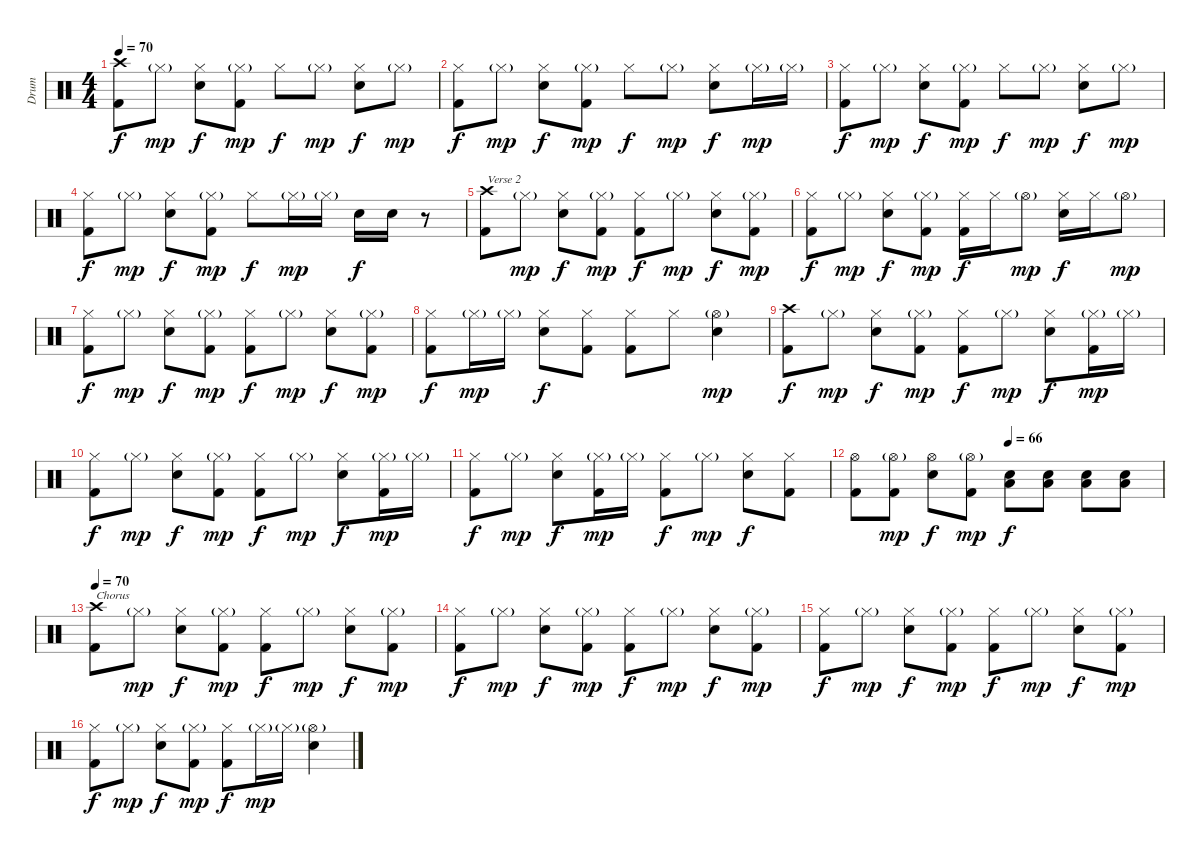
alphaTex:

\track ("Drum" "Drum") {instrument percussion}
\staff {score}
\articulation defaults
\ts (4 4)
\tempo 70
\clef neutral
\ks c
("Crash high (hit)" "Kick (hit) 2").8{dy f} "Hi-Hat (closed)"{g}.8{dy mp} ("Hi-Hat (closed)" "Snare (hit) 2").8{dy f} ("Hi-Hat (closed)"{g} "Kick (hit) 2").8{dy mp} "Hi-Hat (closed)".8{dy f} "Hi-Hat (closed)"{g}.8{dy mp} ("Hi-Hat (closed)" "Snare (hit) 2").8{dy f} "Hi-Hat (closed)"{g}.8{dy mp} |
("Hi-Hat (closed)" "Kick (hit) 2").8{dy f} "Hi-Hat (closed)"{g}.8{dy mp} ("Hi-Hat (closed)" "Snare (hit) 2").8{dy f} ("Hi-Hat (closed)"{g} "Kick (hit) 2").8{dy mp} "Hi-Hat (closed)".8{dy f} "Hi-Hat (closed)"{g}.8{dy mp} ("Hi-Hat (closed)" "Snare (hit) 2").8{dy f} "Hi-Hat (closed)"{g}.16{dy mp} "Hi-Hat (closed)"{g}.16 |
("Hi-Hat (closed)" "Kick (hit) 2").8{dy f} "Hi-Hat (closed)"{g}.8{dy mp} ("Hi-Hat (closed)" "Snare (hit) 2").8{dy f} ("Hi-Hat (closed)"{g} "Kick (hit) 2").8{dy mp} "Hi-Hat (closed)".8{dy f} "Hi-Hat (closed)"{g}.8{dy mp} ("Hi-Hat (closed)" "Snare (hit) 2").8{dy f} "Hi-Hat (closed)"{g}.8{dy mp} |
("Hi-Hat (closed)" "Kick (hit) 2").8{dy f} "Hi-Hat (closed)"{g}.8{dy mp} ("Hi-Hat (closed)" "Snare (hit) 2").8{dy f} ("Hi-Hat (closed)"{g} "Kick (hit) 2").8{dy mp} "Hi-Hat (closed)".8{dy f} "Hi-Hat (closed)"{g}.16{dy mp} "Hi-Hat (closed)"{g}.16 "Snare (hit) 2".16{dy f} "Snare (hit) 2".16 r.8 |
("Crash high (hit)" "Kick (hit) 2").8{txt "Verse 2"} "Hi-Hat (closed)"{g}.8{dy mp} ("Hi-Hat (closed)" "Snare (hit) 2").8{dy f} ("Hi-Hat (closed)"{g} "Kick (hit) 2").8{dy mp} ("Hi-Hat (closed)" "Kick (hit) 2").8{dy f} "Hi-Hat (closed)"{g}.8{dy mp} ("Hi-Hat (closed)" "Snare (hit) 2").8{dy f} ("Hi-Hat (closed)"{g} "Kick (hit) 2").8{dy mp} |
("Hi-Hat (closed)" "Kick (hit) 2").8{dy f} "Hi-Hat (closed)"{g}.8{dy mp} ("Hi-Hat (closed)" "Snare (hit) 2").8{dy f} ("Hi-Hat (closed)"{g} "Kick (hit) 2").8{dy mp} ("Hi-Hat (closed)" "Kick (hit) 2").16{dy f} "Hi-Hat (closed)".16 "Hi-Hat (open)"{g}.8{dy mp} ("Hi-Hat (closed)" "Snare (hit) 2").16{dy f} "Hi-Hat (closed)".16 "Hi-Hat (open)"{g}.8{dy mp} |
("Hi-Hat (closed)" "Kick (hit) 2").8{dy f} "Hi-Hat (closed)"{g}.8{dy mp} ("Hi-Hat (closed)" "Snare (hit) 2").8{dy f} ("Hi-Hat (closed)"{g} "Kick (hit) 2").8{dy mp} ("Hi-Hat (closed)" "Kick (hit) 2").8{dy f} "Hi-Hat (closed)"{g}.8{dy mp} ("Hi-Hat (closed)" "Snare (hit) 2").8{dy f} ("Hi-Hat (closed)"{g} "Kick (hit) 2").8{dy mp} |
("Hi-Hat (closed)" "Kick (hit) 2").8{dy f} "Hi-Hat (closed)"{g}.16{dy mp} "Hi-Hat (closed)"{g}.16 ("Hi-Hat (closed)" "Snare (hit) 2").8{dy f} ("Hi-Hat (closed)" "Kick (hit) 2").8 ("Hi-Hat (closed)" "Kick (hit) 2").8 "Hi-Hat (closed)".8 ("Hi-Hat (open)"{g} "Snare (hit) 2").4{dy mp} |
("Crash high (hit)" "Kick (hit) 2").8{dy f} "Hi-Hat (closed)"{g}.8{dy mp} ("Hi-Hat (closed)" "Snare (hit) 2").8{dy f} ("Hi-Hat (closed)"{g} "Kick (hit) 2").8{dy mp} ("Hi-Hat (closed)" "Kick (hit) 2").8{dy f} "Hi-Hat (closed)"{g}.8{dy mp} ("Hi-Hat (closed)" "Snare (hit) 2").8{dy f} ("Hi-Hat (closed)"{g} "Kick (hit) 2").16{dy mp} "Hi-Hat (closed)"{g}.16 |
("Hi-Hat (closed)" "Kick (hit) 2").8{dy f} "Hi-Hat (closed)"{g}.8{dy mp} ("Hi-Hat (closed)" "Snare (hit) 2").8{dy f} ("Hi-Hat (closed)"{g} "Kick (hit) 2").8{dy mp} ("Hi-Hat (closed)" "Kick (hit) 2").8{dy f} "Hi-Hat (closed)"{g}.8{dy mp} ("Hi-Hat (closed)" "Snare (hit) 2").8{dy f} ("Hi-Hat (closed)"{g} "Kick (hit) 2").16{dy mp} "Hi-Hat (closed)"{g}.16 |
("Hi-Hat (closed)" "Kick (hit) 2").8{dy f} "Hi-Hat (closed)"{g}.8{dy mp} ("Hi-Hat (closed)" "Snare (hit) 2").8{dy f} ("Hi-Hat (closed)"{g} "Kick (hit) 2").16{dy mp} "Hi-Hat (closed)"{g}.16 ("Hi-Hat (closed)" "Kick (hit) 2").8{dy f} "Hi-Hat (closed)"{g}.8{dy mp} ("Hi-Hat (closed)" "Snare (hit) 2").8{dy f} ("Hi-Hat (closed)" "Kick (hit) 2").8 |
\tempo (66 0.5)
("Hi-Hat (open)" "Kick (hit) 2").8 ("Hi-Hat (open)"{g} "Kick (hit) 2").8{dy mp} ("Hi-Hat (open)" "Snare (hit) 2").8{dy f} ("Hi-Hat (open)"{g} "Kick (hit) 2").8{dy mp} ("Low Floor Tom (hit)" "Snare (hit) 2").8{dy f} ("Low Floor Tom (hit)" "Snare (hit) 2").8 ("Low Floor Tom (hit)" "Snare (hit) 2").8 ("Low Floor Tom (hit)" "Snare (hit) 2").8 |
\tempo 70
("Crash high (hit)" "Kick (hit) 2").8{txt "Chorus"} "Hi-Hat (closed)"{g}.8{dy mp} ("Hi-Hat (closed)" "Snare (hit) 2").8{dy f} ("Hi-Hat (closed)"{g} "Kick (hit) 2").8{dy mp} ("Hi-Hat (closed)" "Kick (hit) 2").8{dy f} "Hi-Hat (closed)"{g}.8{dy mp} ("Hi-Hat (closed)" "Snare (hit) 2").8{dy f} ("Hi-Hat (closed)"{g} "Kick (hit) 2").8{dy mp} |
("Hi-Hat (closed)" "Kick (hit) 2").8{dy f} "Hi-Hat (closed)"{g}.8{dy mp} ("Hi-Hat (closed)" "Snare (hit) 2").8{dy f} ("Hi-Hat (closed)"{g} "Kick (hit) 2").8{dy mp} ("Hi-Hat (closed)" "Kick (hit) 2").8{dy f} "Hi-Hat (closed)"{g}.8{dy mp} ("Hi-Hat (closed)" "Snare (hit) 2").8{dy f} ("Hi-Hat (closed)"{g} "Kick (hit) 2").8{dy mp} |
("Hi-Hat (closed)" "Kick (hit) 2").8{dy f} "Hi-Hat (closed)"{g}.8{dy mp} ("Hi-Hat (closed)" "Snare (hit) 2").8{dy f} ("Hi-Hat (closed)"{g} "Kick (hit) 2").8{dy mp} ("Hi-Hat (closed)" "Kick (hit) 2").8{dy f} "Hi-Hat (closed)"{g}.8{dy mp} ("Hi-Hat (closed)" "Snare (hit) 2").8{dy f} ("Hi-Hat (closed)"{g} "Kick (hit) 2").8{dy mp} |
("Hi-Hat (closed)" "Kick (hit) 2").8{dy f} "Hi-Hat (closed)"{g}.8{dy mp} ("Hi-Hat (closed)" "Snare (hit) 2").8{dy f} ("Hi-Hat (closed)"{g} "Kick (hit) 2").8{dy mp} ("Hi-Hat (closed)" "Kick (hit) 2").8{dy f} "Hi-Hat (closed)"{g}.16{dy mp} "Hi-Hat (closed)"{g}.16 ("Hi-Hat (open)"{g} "Snare (hit) 2").4
